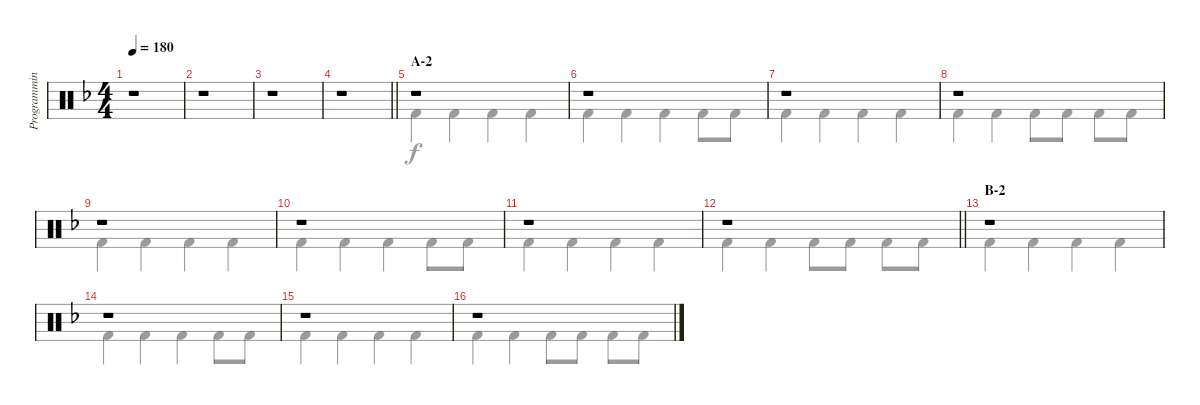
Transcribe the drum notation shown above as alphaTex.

\track ("Programming" "Programmin") {instrument percussion}
\staff {score}
\articulation defaults
\voice
\ts (4 4)
\tempo 180
\clef neutral
\ks f
r.1{dy mp} |
r.1 |
r.1 |
\barLineRight lightlight
r.1 |
\section ("" "A-2")
r.1 |
r.1 |
r.1 |
r.1 |
r.1 |
r.1 |
r.1 |
\barLineRight lightlight
r.1 |
\section ("" "B-2")
r.1 |
r.1 |
r.1 |
r.1
\voice
\clef neutral
\ottava regular
\simile none
\ks f
r.1{dy f} |
r.1 |
r.1 |
\barLineRight lightlight
r.1 |
"Kick (hit) 2".4 "Kick (hit) 2".4 "Kick (hit) 2".4 "Kick (hit) 2".4 |
"Kick (hit) 2".4 "Kick (hit) 2".4 "Kick (hit) 2".4 "Kick (hit) 2".8 "Kick (hit) 2".8 |
"Kick (hit) 2".4 "Kick (hit) 2".4 "Kick (hit) 2".4 "Kick (hit) 2".4 |
"Kick (hit) 2".4 "Kick (hit) 2".4 "Kick (hit) 2".8 "Kick (hit) 2".8 "Kick (hit) 2".8 "Kick (hit) 2".8 |
"Kick (hit) 2".4 "Kick (hit) 2".4 "Kick (hit) 2".4 "Kick (hit) 2".4 |
"Kick (hit) 2".4 "Kick (hit) 2".4 "Kick (hit) 2".4 "Kick (hit) 2".8 "Kick (hit) 2".8 |
"Kick (hit) 2".4 "Kick (hit) 2".4 "Kick (hit) 2".4 "Kick (hit) 2".4 |
\barLineRight lightlight "Kick (hit) 2".4 "Kick (hit) 2".4 "Kick (hit) 2".8 "Kick (hit) 2".8 "Kick (hit) 2".8 "Kick (hit) 2".8
|
"Kick (hit) 2".4 "Kick (hit) 2".4 "Kick (hit) 2".4 "Kick (hit) 2".4 |
"Kick (hit) 2".4 "Kick (hit) 2".4 "Kick (hit) 2".4 "Kick (hit) 2".8 "Kick (hit) 2".8 |
"Kick (hit) 2".4 "Kick (hit) 2".4 "Kick (hit) 2".4 "Kick (hit) 2".4 |
"Kick (hit) 2".4 "Kick (hit) 2".4 "Kick (hit) 2".8 "Kick (hit) 2".8 "Kick (hit) 2".8 "Kick (hit) 2".8
